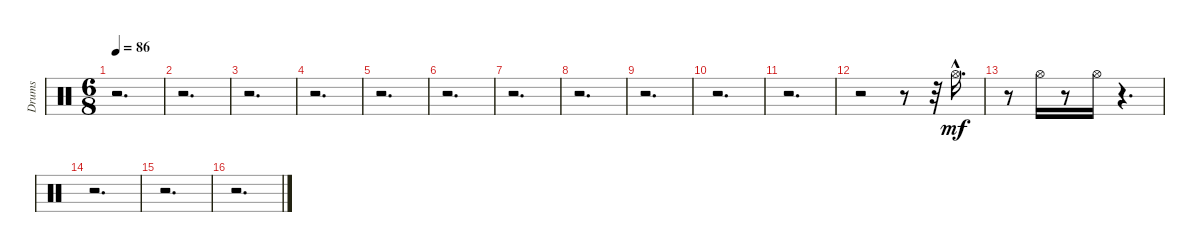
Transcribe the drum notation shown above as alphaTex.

\track ("Drums" "Drums") {instrument percussion}
\staff {score}
\articulation defaults
\ts (6 8)
\tempo 86
\clef neutral
\ks c
r.2{d dy fff} |
r.2{d} |
r.2{d} |
r.2{d} |
r.2{d} |
r.2{d} |
r.2{d} |
r.2{d} |
r.2{d} |
r.2{d} |
r.2{d} |
r.2 r.8 r.32 "Hi-Hat (open)"{hac}.16{d dy mf volume 9} |
r.8 "Hi-Hat (open)".16{volume 11} r.8 "Hi-Hat (open)".16{volume 12} r.4{d} |
r.2{d} |
r.2{d} |
r.2{d}
